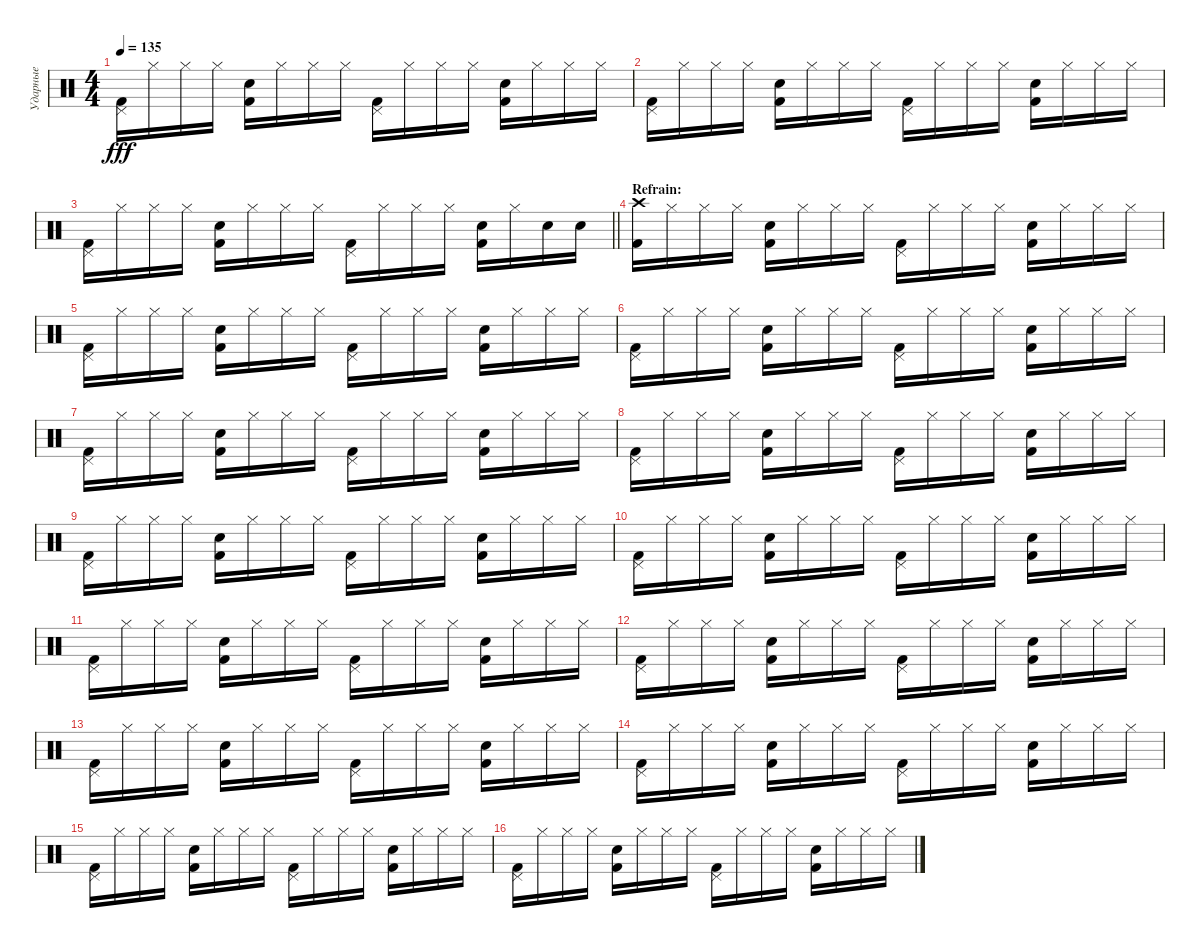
\track ("Ударные" "Ударные") {instrument percussion}
\staff {score}
\articulation defaults
\ts (4 4)
\tempo 135
\clef neutral
\ks c
("Pedal Hi-Hat (hit)" "Kick (hit) 2").16{dy fff} "Hi-Hat (closed)".16 "Hi-Hat (closed)".16 "Hi-Hat (closed)".16 ("Snare (hit) 2" "Kick (hit) 2").16 "Hi-Hat (closed)".16 "Hi-Hat (closed)".16 "Hi-Hat (closed)".16 ("Pedal Hi-Hat (hit)" "Kick (hit) 2").16 "Hi-Hat (closed)".16 "Hi-Hat (closed)".16 "Hi-Hat (closed)".16 ("Snare (hit) 2" "Kick (hit) 2").16 "Hi-Hat (closed)".16 "Hi-Hat (closed)".16 "Hi-Hat (closed)".16 |
("Pedal Hi-Hat (hit)" "Kick (hit) 2").16 "Hi-Hat (closed)".16 "Hi-Hat (closed)".16 "Hi-Hat (closed)".16 ("Snare (hit) 2" "Kick (hit) 2").16 "Hi-Hat (closed)".16 "Hi-Hat (closed)".16 "Hi-Hat (closed)".16 ("Pedal Hi-Hat (hit)" "Kick (hit) 2").16 "Hi-Hat (closed)".16 "Hi-Hat (closed)".16 "Hi-Hat (closed)".16 ("Snare (hit) 2" "Kick (hit) 2").16 "Hi-Hat (closed)".16 "Hi-Hat (closed)".16 "Hi-Hat (closed)".16 |
\barLineRight lightlight
("Pedal Hi-Hat (hit)" "Kick (hit) 2").16 "Hi-Hat (closed)".16 "Hi-Hat (closed)".16 "Hi-Hat (closed)".16 ("Snare (hit) 2" "Kick (hit) 2").16 "Hi-Hat (closed)".16 "Hi-Hat (closed)".16 "Hi-Hat (closed)".16 ("Pedal Hi-Hat (hit)" "Kick (hit) 2").16 "Hi-Hat (closed)".16 "Hi-Hat (closed)".16 "Hi-Hat (closed)".16 ("Snare (hit) 2" "Kick (hit) 2").16 "Hi-Hat (closed)".16 "Snare (hit) 2".16 "Snare (hit) 2".16 |
\section ("" "Refrain:")
("Crash high (hit)" "Kick (hit) 2").16 "Hi-Hat (closed)".16 "Hi-Hat (closed)".16 "Hi-Hat (closed)".16 ("Snare (hit) 2" "Kick (hit) 2").16 "Hi-Hat (closed)".16 "Hi-Hat (closed)".16 "Hi-Hat (closed)".16 ("Pedal Hi-Hat (hit)" "Kick (hit) 2").16 "Hi-Hat (closed)".16 "Hi-Hat (closed)".16 "Hi-Hat (closed)".16 ("Snare (hit) 2" "Kick (hit) 2").16 "Hi-Hat (closed)".16 "Hi-Hat (closed)".16 "Hi-Hat (closed)".16 |
("Pedal Hi-Hat (hit)" "Kick (hit) 2").16 "Hi-Hat (closed)".16 "Hi-Hat (closed)".16 "Hi-Hat (closed)".16 ("Snare (hit) 2" "Kick (hit) 2").16 "Hi-Hat (closed)".16 "Hi-Hat (closed)".16 "Hi-Hat (closed)".16 ("Pedal Hi-Hat (hit)" "Kick (hit) 2").16 "Hi-Hat (closed)".16 "Hi-Hat (closed)".16 "Hi-Hat (closed)".16 ("Snare (hit) 2" "Kick (hit) 2").16 "Hi-Hat (closed)".16 "Hi-Hat (closed)".16 "Hi-Hat (closed)".16 |
("Pedal Hi-Hat (hit)" "Kick (hit) 2").16 "Hi-Hat (closed)".16 "Hi-Hat (closed)".16 "Hi-Hat (closed)".16 ("Snare (hit) 2" "Kick (hit) 2").16 "Hi-Hat (closed)".16 "Hi-Hat (closed)".16 "Hi-Hat (closed)".16 ("Pedal Hi-Hat (hit)" "Kick (hit) 2").16 "Hi-Hat (closed)".16 "Hi-Hat (closed)".16 "Hi-Hat (closed)".16 ("Snare (hit) 2" "Kick (hit) 2").16 "Hi-Hat (closed)".16 "Hi-Hat (closed)".16 "Hi-Hat (closed)".16 |
("Pedal Hi-Hat (hit)" "Kick (hit) 2").16 "Hi-Hat (closed)".16 "Hi-Hat (closed)".16 "Hi-Hat (closed)".16 ("Snare (hit) 2" "Kick (hit) 2").16 "Hi-Hat (closed)".16 "Hi-Hat (closed)".16 "Hi-Hat (closed)".16 ("Pedal Hi-Hat (hit)" "Kick (hit) 2").16 "Hi-Hat (closed)".16 "Hi-Hat (closed)".16 "Hi-Hat (closed)".16 ("Snare (hit) 2" "Kick (hit) 2").16 "Hi-Hat (closed)".16 "Hi-Hat (closed)".16 "Hi-Hat (closed)".16 |
("Pedal Hi-Hat (hit)" "Kick (hit) 2").16 "Hi-Hat (closed)".16 "Hi-Hat (closed)".16 "Hi-Hat (closed)".16 ("Snare (hit) 2" "Kick (hit) 2").16 "Hi-Hat (closed)".16 "Hi-Hat (closed)".16 "Hi-Hat (closed)".16 ("Pedal Hi-Hat (hit)" "Kick (hit) 2").16 "Hi-Hat (closed)".16 "Hi-Hat (closed)".16 "Hi-Hat (closed)".16 ("Snare (hit) 2" "Kick (hit) 2").16 "Hi-Hat (closed)".16 "Hi-Hat (closed)".16 "Hi-Hat (closed)".16 |
("Pedal Hi-Hat (hit)" "Kick (hit) 2").16 "Hi-Hat (closed)".16 "Hi-Hat (closed)".16 "Hi-Hat (closed)".16 ("Snare (hit) 2" "Kick (hit) 2").16 "Hi-Hat (closed)".16 "Hi-Hat (closed)".16 "Hi-Hat (closed)".16 ("Pedal Hi-Hat (hit)" "Kick (hit) 2").16 "Hi-Hat (closed)".16 "Hi-Hat (closed)".16 "Hi-Hat (closed)".16 ("Snare (hit) 2" "Kick (hit) 2").16 "Hi-Hat (closed)".16 "Hi-Hat (closed)".16 "Hi-Hat (closed)".16 |
("Pedal Hi-Hat (hit)" "Kick (hit) 2").16 "Hi-Hat (closed)".16 "Hi-Hat (closed)".16 "Hi-Hat (closed)".16 ("Snare (hit) 2" "Kick (hit) 2").16 "Hi-Hat (closed)".16 "Hi-Hat (closed)".16 "Hi-Hat (closed)".16 ("Pedal Hi-Hat (hit)" "Kick (hit) 2").16 "Hi-Hat (closed)".16 "Hi-Hat (closed)".16 "Hi-Hat (closed)".16 ("Snare (hit) 2" "Kick (hit) 2").16 "Hi-Hat (closed)".16 "Hi-Hat (closed)".16 "Hi-Hat (closed)".16 |
("Pedal Hi-Hat (hit)" "Kick (hit) 2").16 "Hi-Hat (closed)".16 "Hi-Hat (closed)".16 "Hi-Hat (closed)".16 ("Snare (hit) 2" "Kick (hit) 2").16 "Hi-Hat (closed)".16 "Hi-Hat (closed)".16 "Hi-Hat (closed)".16 ("Pedal Hi-Hat (hit)" "Kick (hit) 2").16 "Hi-Hat (closed)".16 "Hi-Hat (closed)".16 "Hi-Hat (closed)".16 ("Snare (hit) 2" "Kick (hit) 2").16 "Hi-Hat (closed)".16 "Hi-Hat (closed)".16 "Hi-Hat (closed)".16 |
("Pedal Hi-Hat (hit)" "Kick (hit) 2").16 "Hi-Hat (closed)".16 "Hi-Hat (closed)".16 "Hi-Hat (closed)".16 ("Snare (hit) 2" "Kick (hit) 2").16 "Hi-Hat (closed)".16 "Hi-Hat (closed)".16 "Hi-Hat (closed)".16 ("Pedal Hi-Hat (hit)" "Kick (hit) 2").16 "Hi-Hat (closed)".16 "Hi-Hat (closed)".16 "Hi-Hat (closed)".16 ("Snare (hit) 2" "Kick (hit) 2").16 "Hi-Hat (closed)".16 "Hi-Hat (closed)".16 "Hi-Hat (closed)".16 |
("Pedal Hi-Hat (hit)" "Kick (hit) 2").16 "Hi-Hat (closed)".16 "Hi-Hat (closed)".16 "Hi-Hat (closed)".16 ("Snare (hit) 2" "Kick (hit) 2").16 "Hi-Hat (closed)".16 "Hi-Hat (closed)".16 "Hi-Hat (closed)".16 ("Pedal Hi-Hat (hit)" "Kick (hit) 2").16 "Hi-Hat (closed)".16 "Hi-Hat (closed)".16 "Hi-Hat (closed)".16 ("Snare (hit) 2" "Kick (hit) 2").16 "Hi-Hat (closed)".16 "Hi-Hat (closed)".16 "Hi-Hat (closed)".16 |
("Pedal Hi-Hat (hit)" "Kick (hit) 2").16 "Hi-Hat (closed)".16 "Hi-Hat (closed)".16 "Hi-Hat (closed)".16 ("Snare (hit) 2" "Kick (hit) 2").16 "Hi-Hat (closed)".16 "Hi-Hat (closed)".16 "Hi-Hat (closed)".16 ("Pedal Hi-Hat (hit)" "Kick (hit) 2").16 "Hi-Hat (closed)".16 "Hi-Hat (closed)".16 "Hi-Hat (closed)".16 ("Snare (hit) 2" "Kick (hit) 2").16 "Hi-Hat (closed)".16 "Hi-Hat (closed)".16 "Hi-Hat (closed)".16 |
("Pedal Hi-Hat (hit)" "Kick (hit) 2").16 "Hi-Hat (closed)".16 "Hi-Hat (closed)".16 "Hi-Hat (closed)".16 ("Snare (hit) 2" "Kick (hit) 2").16 "Hi-Hat (closed)".16 "Hi-Hat (closed)".16 "Hi-Hat (closed)".16 ("Pedal Hi-Hat (hit)" "Kick (hit) 2").16 "Hi-Hat (closed)".16 "Hi-Hat (closed)".16 "Hi-Hat (closed)".16 ("Snare (hit) 2" "Kick (hit) 2").16 "Hi-Hat (closed)".16 "Hi-Hat (closed)".16 "Hi-Hat (closed)".16 |
("Pedal Hi-Hat (hit)" "Kick (hit) 2").16 "Hi-Hat (closed)".16 "Hi-Hat (closed)".16 "Hi-Hat (closed)".16 ("Snare (hit) 2" "Kick (hit) 2").16 "Hi-Hat (closed)".16 "Hi-Hat (closed)".16 "Hi-Hat (closed)".16 ("Pedal Hi-Hat (hit)" "Kick (hit) 2").16 "Hi-Hat (closed)".16 "Hi-Hat (closed)".16 "Hi-Hat (closed)".16 ("Snare (hit) 2" "Kick (hit) 2").16 "Hi-Hat (closed)".16 "Hi-Hat (closed)".16 "Hi-Hat (closed)".16
